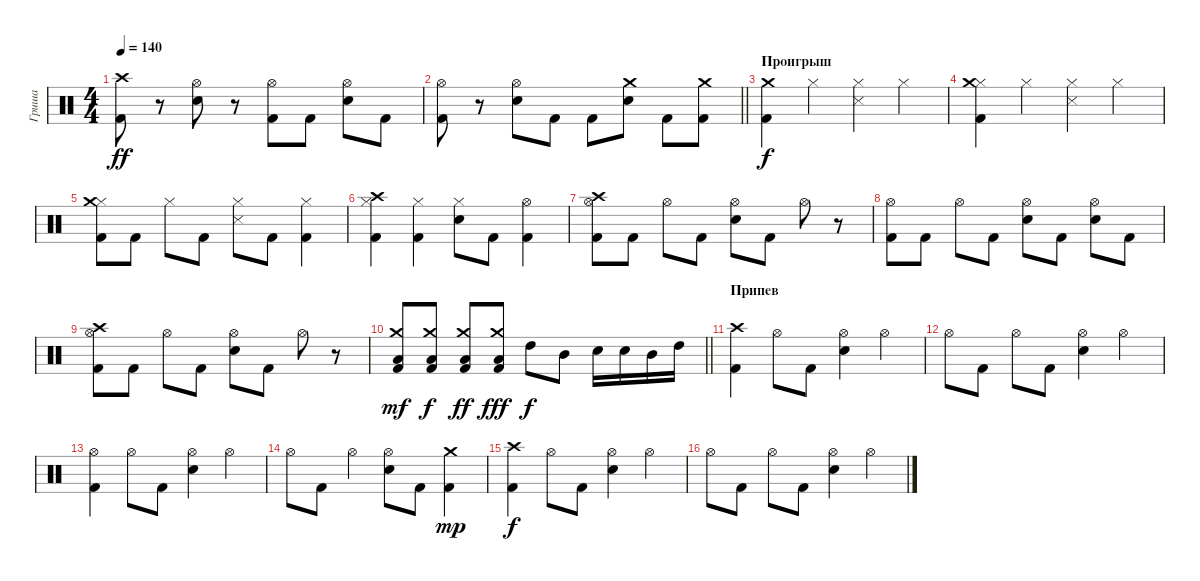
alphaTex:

\track ("Гриша" "Гриша") {instrument percussion}
\staff {score}
\articulation defaults
\ts (4 4)
\tempo 140
\clef neutral
\ks c
("Crash high (hit)" "Kick (hit) 2").8{dy ff} r.8 ("Hi-Hat (open)" "Electric Snare (hit)").8 r.8 ("Hi-Hat (open)" "Kick (hit) 2").8 "Kick (hit) 2".8 ("Hi-Hat (open)" "Electric Snare (hit)").8 "Kick (hit) 2".8 |
\barLineRight lightlight
("Hi-Hat (open)" "Kick (hit) 2").8 r.8 ("Hi-Hat (open)" "Electric Snare (hit)").8 "Kick (hit) 2".8 "Kick (hit) 2".8 ("Crash medium (hit)" "Electric Snare (hit)").8 "Kick (hit) 2".8 ("Crash medium (hit)" "Kick (hit) 2").8 |
\section ("" "Проигрыш")
("Crash medium (hit)" "Kick (hit) 2").4{dy f} "Hi-Hat (closed)".4 ("Hi-Hat (closed)" "Snare (side stick) 3").4 "Hi-Hat (closed)".4 |
("Hi-Hat (closed)" "Crash medium (hit)" "Kick (hit) 2").4 "Hi-Hat (closed)".4 ("Hi-Hat (closed)" "Snare (side stick) 3").4 "Hi-Hat (closed)".4 |
("Hi-Hat (closed)" "Crash medium (hit)" "Kick (hit) 2").8 "Kick (hit) 2".8 "Hi-Hat (closed)".8 "Kick (hit) 2".8 ("Hi-Hat (closed)" "Snare (side stick) 3").8 "Kick (hit) 2".8 ("Hi-Hat (closed)" "Kick (hit) 2").4 |
("Hi-Hat (closed)" "Kick (hit) 2" "Crash high (hit)").4 ("Hi-Hat (closed)" "Kick (hit) 2").4 ("Hi-Hat (closed)" "Electric Snare (hit)").8 "Kick (hit) 2".8 ("Hi-Hat (open)" "Kick (hit) 2").4 |
("Hi-Hat (open)" "Kick (hit) 2" "Crash high (hit)").8 "Kick (hit) 2".8 "Hi-Hat (open)".8 "Kick (hit) 2".8 ("Hi-Hat (open)" "Electric Snare (hit)").8 "Kick (hit) 2".8 "Hi-Hat (open)".8 r.8 |
("Hi-Hat (open)" "Kick (hit) 2").8 "Kick (hit) 2".8 "Hi-Hat (open)".8 "Kick (hit) 2".8 ("Hi-Hat (open)" "Electric Snare (hit)").8 "Kick (hit) 2".8 ("Hi-Hat (open)" "Electric Snare (hit)").8 "Kick (hit) 2".8 |
("Hi-Hat (open)" "Kick (hit) 2" "Crash high (hit)").8 "Kick (hit) 2".8 "Hi-Hat (open)".8 "Kick (hit) 2".8 ("Hi-Hat (open)" "Electric Snare (hit)").8 "Kick (hit) 2".8 "Hi-Hat (open)".8 r.8 |
\barLineRight lightlight
("Kick (hit) 2" "Low Floor Tom (hit)" "Crash medium (hit)").8{dy mf} ("Kick (hit) 2" "Low Floor Tom (hit)" "Crash medium (hit)").8{dy f} ("Kick (hit) 2" "Low Floor Tom (hit)" "Crash medium (hit)").8{dy ff} ("Kick (hit) 2" "Low Floor Tom (hit)" "Crash medium (hit)").8{dy fff} "High Tom (hit)".8{dy f} "Mid Tom (hit)".8 "Electric Snare (hit)".16 "Electric Snare (hit)".16 "Mid Tom (hit)".16 "High Tom (hit)".16 |
\section ("" "Припев")
("Crash high (hit)" "Kick (hit) 2").4 "Hi-Hat (open)".8 "Kick (hit) 2".8 ("Hi-Hat (open)" "Electric Snare (hit)").4 "Hi-Hat (open)".4 |
"Hi-Hat (open)".8 "Kick (hit) 2".8 "Hi-Hat (open)".8 "Kick (hit) 2".8 ("Hi-Hat (open)" "Electric Snare (hit)").4 "Hi-Hat (open)".4 |
("Hi-Hat (open)" "Kick (hit) 2").4 "Hi-Hat (open)".8 "Kick (hit) 2".8 ("Hi-Hat (open)" "Electric Snare (hit)").4 "Hi-Hat (open)".4 |
"Hi-Hat (open)".8 "Kick (hit) 2".8 "Hi-Hat (open)".4 ("Hi-Hat (open)" "Electric Snare (hit)").8 "Kick (hit) 2".8 ("Crash medium (hit)" "Kick (hit) 2").4{dy mp} |
("Crash high (hit)" "Kick (hit) 2").4{dy f} "Hi-Hat (open)".8 "Kick (hit) 2".8 ("Hi-Hat (open)" "Electric Snare (hit)").4 "Hi-Hat (open)".4 |
"Hi-Hat (open)".8 "Kick (hit) 2".8 "Hi-Hat (open)".8 "Kick (hit) 2".8 ("Hi-Hat (open)" "Electric Snare (hit)").4 "Hi-Hat (open)".4
